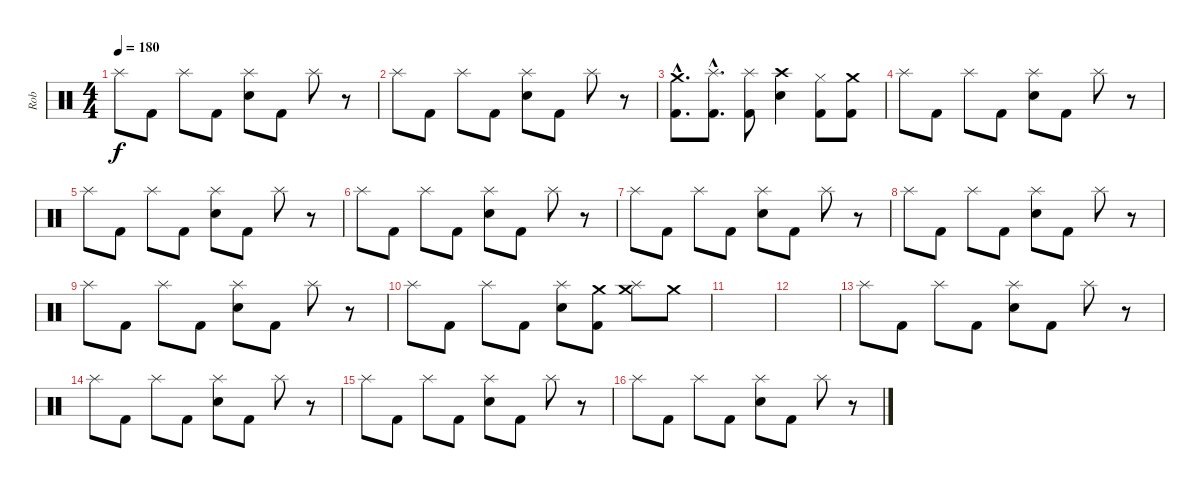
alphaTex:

\track ("Rob" "Rob") {instrument percussion}
\staff {score}
\articulation defaults
\ts (4 4)
\tempo 180
\clef neutral
\ks c "Splash (hit)".8{dy f} "Kick (hit) 2".8 "Splash (hit)".8 "Kick (hit) 2".8
("Splash (hit)" "Electric Snare (hit)").8 "Kick (hit) 2".8 "Splash (hit)".8 r.8 |
"Splash (hit)".8 "Kick (hit) 2".8 "Splash (hit)".8 "Kick (hit) 2".8 ("Splash (hit)" "Electric Snare (hit)").8 "Kick (hit) 2".8 "Splash (hit)".8 r.8 |
("Crash medium (hit)"{hac} "Kick (hit) 2"{hac}).8{d} ("Splash (hit)"{hac} "Kick (hit) 2"{hac}).8{d} ("Splash (hit)" "Kick (hit) 2").8 ("Crash high (hit)" "Electric Snare (hit)").4 ("Hi-Hat (closed)" "Kick (hit) 2").8 ("Crash medium (hit)" "Kick (hit) 2").8 |
"Splash (hit)".8 "Kick (hit) 2".8 "Splash (hit)".8 "Kick (hit) 2".8 ("Splash (hit)" "Electric Snare (hit)").8 "Kick (hit) 2".8 "Splash (hit)".8 r.8 |
"Splash (hit)".8 "Kick (hit) 2".8 "Splash (hit)".8 "Kick (hit) 2".8 ("Splash (hit)" "Electric Snare (hit)").8 "Kick (hit) 2".8 "Splash (hit)".8 r.8 |
"Splash (hit)".8 "Kick (hit) 2".8 "Splash (hit)".8 "Kick (hit) 2".8 ("Splash (hit)" "Electric Snare (hit)").8 "Kick (hit) 2".8 "Splash (hit)".8 r.8 |
"Splash (hit)".8 "Kick (hit) 2".8 "Splash (hit)".8 "Kick (hit) 2".8 ("Splash (hit)" "Electric Snare (hit)").8 "Kick (hit) 2".8 "Splash (hit)".8 r.8 |
"Splash (hit)".8 "Kick (hit) 2".8 "Splash (hit)".8 "Kick (hit) 2".8 ("Splash (hit)" "Electric Snare (hit)").8 "Kick (hit) 2".8 "Splash (hit)".8 r.8 |
"Splash (hit)".8 "Kick (hit) 2".8 "Splash (hit)".8 "Kick (hit) 2".8 ("Splash (hit)" "Electric Snare (hit)").8 "Kick (hit) 2".8 "Splash (hit)".8 r.8 |
"Splash (hit)".8 "Kick (hit) 2".8 "Splash (hit)".8 "Kick (hit) 2".8 ("Splash (hit)" "Electric Snare (hit)").8 ("Crash medium (hit)" "Kick (hit) 2").8 ("Splash (hit)" "Crash medium (hit)").8 "Crash medium (hit)".8 |
|
|
"Splash (hit)".8 "Kick (hit) 2".8 "Splash (hit)".8 "Kick (hit) 2".8 ("Splash (hit)" "Electric Snare (hit)").8 "Kick (hit) 2".8 "Splash (hit)".8 r.8 |
"Splash (hit)".8 "Kick (hit) 2".8 "Splash (hit)".8 "Kick (hit) 2".8 ("Splash (hit)" "Electric Snare (hit)").8 "Kick (hit) 2".8 "Splash (hit)".8 r.8 |
"Splash (hit)".8 "Kick (hit) 2".8 "Splash (hit)".8 "Kick (hit) 2".8 ("Splash (hit)" "Electric Snare (hit)").8 "Kick (hit) 2".8 "Splash (hit)".8 r.8 |
"Splash (hit)".8 "Kick (hit) 2".8 "Splash (hit)".8 "Kick (hit) 2".8 ("Splash (hit)" "Electric Snare (hit)").8 "Kick (hit) 2".8 "Splash (hit)".8 r.8
